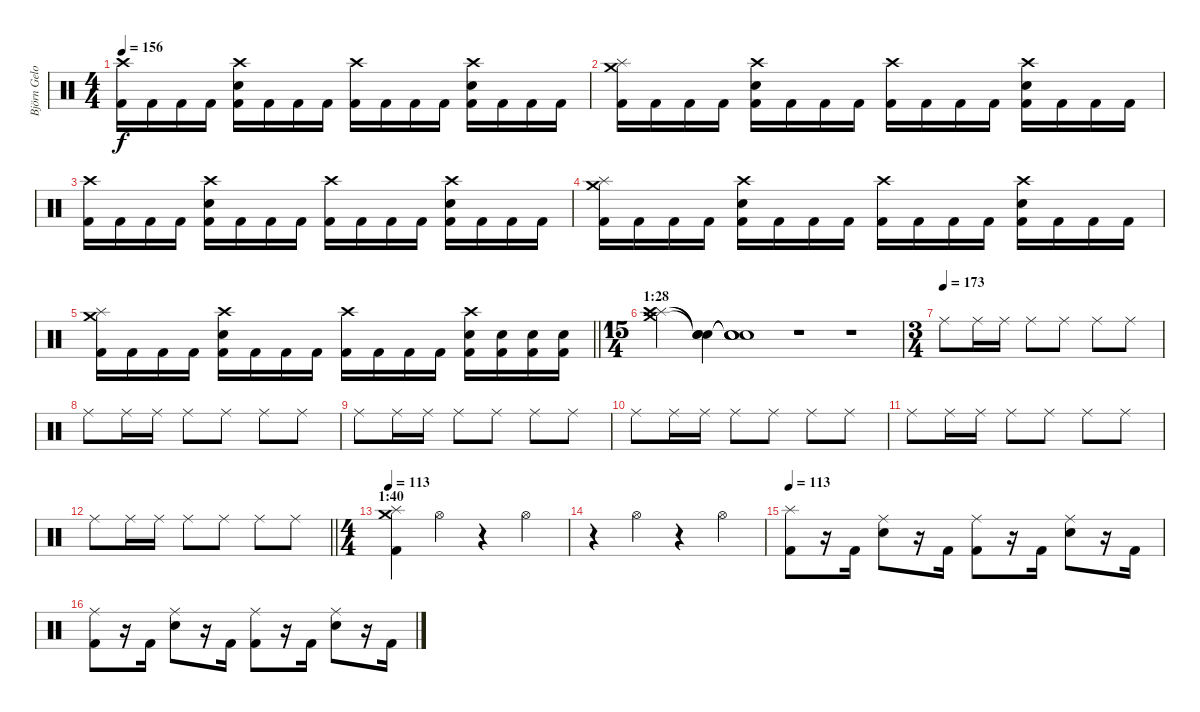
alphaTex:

\track ("Björn Gelotte" "Björn Gelo") {instrument percussion}
\staff {score}
\articulation defaults
\ts (4 4)
\tempo 156
\clef neutral
\ks c
("Crash high (hit)" "Kick (hit) 2").16{dy f} "Kick (hit) 2".16 "Kick (hit) 2".16 "Kick (hit) 2".16 ("Crash high (hit)" "Electric Snare (hit)" "Kick (hit) 2").16 "Kick (hit) 2".16 "Kick (hit) 2".16 "Kick (hit) 2".16 ("Crash high (hit)" "Kick (hit) 2").16 "Kick (hit) 2".16 "Kick (hit) 2".16 "Kick (hit) 2".16 ("Crash high (hit)" "Electric Snare (hit)" "Kick (hit) 2").16 "Kick (hit) 2".16 "Kick (hit) 2".16 "Kick (hit) 2".16 |
("Crash medium (hit)" "Splash (hit)" "Kick (hit) 2").16 "Kick (hit) 2".16 "Kick (hit) 2".16 "Kick (hit) 2".16 ("Crash high (hit)" "Electric Snare (hit)" "Kick (hit) 2").16 "Kick (hit) 2".16 "Kick (hit) 2".16 "Kick (hit) 2".16 ("Crash high (hit)" "Kick (hit) 2").16 "Kick (hit) 2".16 "Kick (hit) 2".16 "Kick (hit) 2".16 ("Crash high (hit)" "Electric Snare (hit)" "Kick (hit) 2").16 "Kick (hit) 2".16 "Kick (hit) 2".16 "Kick (hit) 2".16 |
("Crash high (hit)" "Kick (hit) 2").16 "Kick (hit) 2".16 "Kick (hit) 2".16 "Kick (hit) 2".16 ("Crash high (hit)" "Electric Snare (hit)" "Kick (hit) 2").16 "Kick (hit) 2".16 "Kick (hit) 2".16 "Kick (hit) 2".16 ("Crash high (hit)" "Kick (hit) 2").16 "Kick (hit) 2".16 "Kick (hit) 2".16 "Kick (hit) 2".16 ("Crash high (hit)" "Electric Snare (hit)" "Kick (hit) 2").16 "Kick (hit) 2".16 "Kick (hit) 2".16 "Kick (hit) 2".16 |
("Crash medium (hit)" "Splash (hit)" "Kick (hit) 2").16 "Kick (hit) 2".16 "Kick (hit) 2".16 "Kick (hit) 2".16 ("Crash high (hit)" "Electric Snare (hit)" "Kick (hit) 2").16 "Kick (hit) 2".16 "Kick (hit) 2".16 "Kick (hit) 2".16 ("Crash high (hit)" "Kick (hit) 2").16 "Kick (hit) 2".16 "Kick (hit) 2".16 "Kick (hit) 2".16 ("Crash high (hit)" "Electric Snare (hit)" "Kick (hit) 2").16 "Kick (hit) 2".16 "Kick (hit) 2".16 "Kick (hit) 2".16 |
\barLineRight lightlight
("Crash medium (hit)" "Splash (hit)" "Kick (hit) 2").16 "Kick (hit) 2".16 "Kick (hit) 2".16 "Kick (hit) 2".16 ("Crash high (hit)" "Electric Snare (hit)" "Kick (hit) 2").16 "Kick (hit) 2".16 "Kick (hit) 2".16 "Kick (hit) 2".16 ("Crash high (hit)" "Kick (hit) 2").16 "Kick (hit) 2".16 "Kick (hit) 2".16 "Kick (hit) 2".16 ("Crash high (hit)" "Electric Snare (hit)" "Kick (hit) 2").16 ("Electric Snare (hit)" "Kick (hit) 2").16 ("Electric Snare (hit)" "Kick (hit) 2").16 ("Electric Snare (hit)" "Kick (hit) 2").16 |
\ts (15 4)
\section ("" "1:28")
("Splash (hit)" "Crash medium (hit)" "Crash high (hit)").2 ("Snare (hit)"{t} "Snare (hit)"{t} "Snare (hit)"{t}).4 ("Snare (hit)"{t} "Snare (hit)"{t} "Snare (hit)"{t}).1 r.1 r.1 |
\ts (3 4)
\tempo (173)
"Ride (middle)".8 "Ride (middle)".16 "Ride (middle)".16 "Ride (middle)".8 "Ride (middle)".8 "Ride (middle)".8 "Ride (middle)".8 |
"Ride (middle)".8 "Ride (middle)".16 "Ride (middle)".16 "Ride (middle)".8 "Ride (middle)".8 "Ride (middle)".8 "Ride (middle)".8 |
"Ride (middle)".8 "Ride (middle)".16 "Ride (middle)".16 "Ride (middle)".8 "Ride (middle)".8 "Ride (middle)".8 "Ride (middle)".8 |
"Ride (middle)".8 "Ride (middle)".16 "Ride (middle)".16 "Ride (middle)".8 "Ride (middle)".8 "Ride (middle)".8 "Ride (middle)".8 |
"Ride (middle)".8 "Ride (middle)".16 "Ride (middle)".16 "Ride (middle)".8 "Ride (middle)".8 "Ride (middle)".8 "Ride (middle)".8 |
\barLineRight lightlight "Ride (middle)".8 "Ride (middle)".16 "Ride (middle)".16 "Ride (middle)".8 "Ride (middle)".8 "Ride (middle)".8 "Ride (middle)".8
|
\ts (4 4)
\section ("" "1:40")
\tempo 113
("Splash (hit)" "Crash medium (hit)" "Kick (hit) 2").4 "Hi-Hat (open)".4 r.4 "Hi-Hat (open)".4 |
r.4 "Hi-Hat (open)".4 r.4 "Hi-Hat (open)".4 |
\tempo 113
("Splash (hit)" "Kick (hit) 2").8 r.16 "Kick (hit) 2".16 ("Ride (middle)" "Electric Snare (hit)").8 r.16 "Kick (hit) 2".16 ("Ride (middle)" "Kick (hit) 2").8 r.16 "Kick (hit) 2".16 ("Ride (middle)" "Electric Snare (hit)").8 r.16 "Kick (hit) 2".16 |
("Ride (middle)" "Kick (hit) 2").8 r.16 "Kick (hit) 2".16 ("Ride (middle)" "Electric Snare (hit)").8 r.16 "Kick (hit) 2".16 ("Ride (middle)" "Kick (hit) 2").8 r.16 "Kick (hit) 2".16 ("Ride (middle)" "Electric Snare (hit)").8 r.16 "Kick (hit) 2".16
